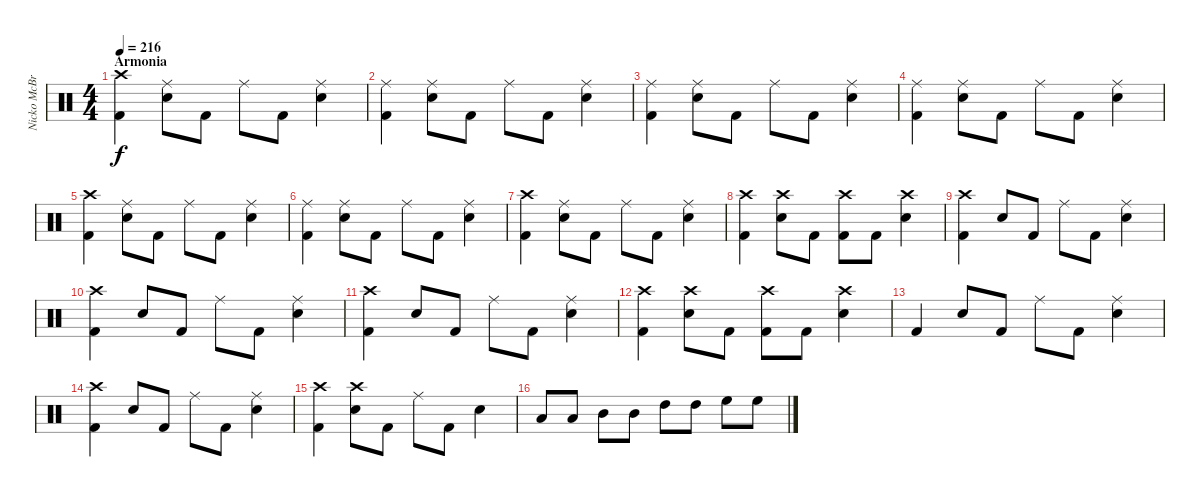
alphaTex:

\track ("Nicko McBrain" "Nicko McBr") {instrument percussion}
\staff {score}
\articulation defaults
\ts (4 4)
\section ("" "Armonia")
\tempo 216
\clef neutral
\ks c
("Crash high (hit)" "Kick (hit) 2").4{dy f} ("Ride (middle)" "Snare (hit) 2").8 "Kick (hit) 2".8 "Ride (middle)".8 "Kick (hit) 2".8 ("Ride (middle)" "Snare (hit) 2").4 |
("Ride (middle)" "Kick (hit) 2").4 ("Ride (middle)" "Snare (hit) 2").8 "Kick (hit) 2".8 "Ride (middle)".8 "Kick (hit) 2".8 ("Ride (middle)" "Snare (hit) 2").4 |
("Ride (middle)" "Kick (hit) 2").4 ("Ride (middle)" "Snare (hit) 2").8 "Kick (hit) 2".8 "Ride (middle)".8 "Kick (hit) 2".8 ("Ride (middle)" "Snare (hit) 2").4 |
("Ride (middle)" "Kick (hit) 2").4 ("Ride (middle)" "Snare (hit) 2").8 "Kick (hit) 2".8 "Ride (middle)".8 "Kick (hit) 2".8 ("Ride (middle)" "Snare (hit) 2").4 |
("Crash high (hit)" "Kick (hit) 2").4 ("Ride (middle)" "Snare (hit) 2").8 "Kick (hit) 2".8 "Ride (middle)".8 "Kick (hit) 2".8 ("Ride (middle)" "Snare (hit) 2").4 |
("Ride (middle)" "Kick (hit) 2").4 ("Ride (middle)" "Snare (hit) 2").8 "Kick (hit) 2".8 "Ride (middle)".8 "Kick (hit) 2".8 ("Ride (middle)" "Snare (hit) 2").4 |
("Crash high (hit)" "Kick (hit) 2").4 ("Ride (middle)" "Snare (hit) 2").8 "Kick (hit) 2".8 "Ride (middle)".8 "Kick (hit) 2".8 ("Ride (middle)" "Snare (hit) 2").4 |
("Crash high (hit)" "Kick (hit) 2").4 ("Crash high (hit)" "Snare (hit) 2").8 "Kick (hit) 2".8 ("Crash high (hit)" "Kick (hit) 2").8 "Kick (hit) 2".8 ("Crash high (hit)" "Snare (hit) 2").4 |
("Crash high (hit)" "Kick (hit) 2").4 "Snare (hit) 2".8 "Kick (hit) 2".8 "Ride (middle)".8 "Kick (hit) 2".8 ("Ride (middle)" "Snare (hit) 2").4 |
("Crash high (hit)" "Kick (hit) 2").4 "Snare (hit) 2".8 "Kick (hit) 2".8 "Ride (middle)".8 "Kick (hit) 2".8 ("Ride (middle)" "Snare (hit) 2").4 |
("Crash high (hit)" "Kick (hit) 2").4 "Snare (hit) 2".8 "Kick (hit) 2".8 "Ride (middle)".8 "Kick (hit) 2".8 ("Ride (middle)" "Snare (hit) 2").4 |
("Crash high (hit)" "Kick (hit) 2").4 ("Crash high (hit)" "Snare (hit) 2").8 "Kick (hit) 2".8 ("Crash high (hit)" "Kick (hit) 2").8 "Kick (hit) 2".8 ("Crash high (hit)" "Snare (hit) 2").4 |
"Kick (hit) 2".4 "Snare (hit) 2".8 "Kick (hit) 2".8 "Ride (middle)".8 "Kick (hit) 2".8 ("Ride (middle)" "Snare (hit) 2").4 |
("Crash high (hit)" "Kick (hit) 2").4 "Snare (hit) 2".8 "Kick (hit) 2".8 "Ride (middle)".8 "Kick (hit) 2".8 ("Ride (middle)" "Snare (hit) 2").4 |
("Crash high (hit)" "Kick (hit) 2").4 ("Crash high (hit)" "Snare (hit) 2").8 "Kick (hit) 2".8 "Ride (middle)".8 "Kick (hit) 2".8 "Snare (hit) 2".4 |
"Low Tom (hit)".8 "Low Tom (hit)".8 "Mid Tom (hit)".8 "Mid Tom (hit)".8 "High Tom (hit)".8 "High Tom (hit)".8 "High Floor Tom (hit)".8 "High Floor Tom (hit)".8
